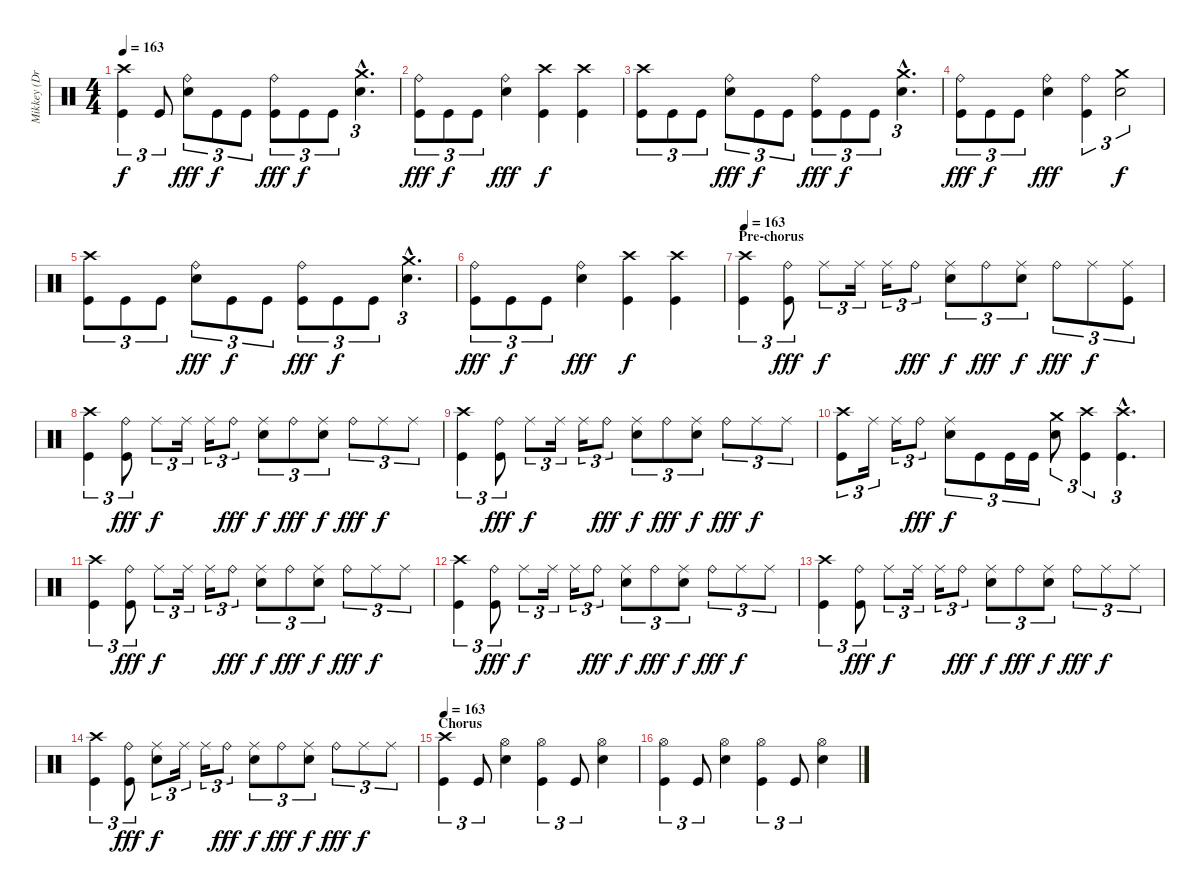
\track ("Mikkey (Drums)" "Mikkey (Dr") {instrument percussion}
\staff {score}
\articulation defaults
\ts (4 4)
\tempo 163
\clef neutral
\ks c
("Crash high (hit)" "Kick (hit)").4{tu (3 2) dy f} "Kick (hit)".8{tu (3 2)} ("Ride (bell)" "Electric Snare (hit)").8{tu (3 2) dy fff} "Kick (hit)".8{tu (3 2) dy f} "Kick (hit)".8{tu (3 2)} ("Ride (bell)" "Kick (hit)").8{tu (3 2) dy fff} "Kick (hit)".8{tu (3 2) dy f} "Kick (hit)".8{tu (3 2)} ("Crash medium (hit)"{hac} "Electric Snare (hit)"{hac}).4{d tu (3 2)} |
("Ride (bell)" "Kick (hit)").8{tu (3 2) dy fff} "Kick (hit)".8{tu (3 2) dy f} "Kick (hit)".8{tu (3 2)} ("Ride (bell)" "Electric Snare (hit)").4{dy fff} ("Crash high (hit)" "Kick (hit)").4{dy f} ("Crash high (hit)" "Kick (hit)").4 |
("Crash high (hit)" "Kick (hit)").8{tu (3 2)} "Kick (hit)".8{tu (3 2)} "Kick (hit)".8{tu (3 2)} ("Ride (bell)" "Electric Snare (hit)").8{tu (3 2) dy fff} "Kick (hit)".8{tu (3 2) dy f} "Kick (hit)".8{tu (3 2)} ("Ride (bell)" "Kick (hit)").8{tu (3 2) dy fff} "Kick (hit)".8{tu (3 2) dy f} "Kick (hit)".8{tu (3 2)} ("Crash medium (hit)"{hac} "Electric Snare (hit)"{hac}).4{d tu (3 2)} |
("Ride (bell)" "Kick (hit)").8{tu (3 2) dy fff} "Kick (hit)".8{tu (3 2) dy f} "Kick (hit)".8{tu (3 2)} ("Ride (bell)" "Electric Snare (hit)").4{dy fff} ("Ride (bell)" "Kick (hit)").4{tu (3 2)} ("Crash medium (hit)" "Electric Snare (hit)").2{tu (3 2) dy f} |
("Crash high (hit)" "Kick (hit)").8{tu (3 2)} "Kick (hit)".8{tu (3 2)} "Kick (hit)".8{tu (3 2)} ("Ride (bell)" "Electric Snare (hit)").8{tu (3 2) dy fff} "Kick (hit)".8{tu (3 2) dy f} "Kick (hit)".8{tu (3 2)} ("Ride (bell)" "Kick (hit)").8{tu (3 2) dy fff} "Kick (hit)".8{tu (3 2) dy f} "Kick (hit)".8{tu (3 2)} ("Crash medium (hit)"{hac} "Electric Snare (hit)"{hac}).4{d tu (3 2)} |
("Ride (bell)" "Kick (hit)").8{tu (3 2) dy fff} "Kick (hit)".8{tu (3 2) dy f} "Kick (hit)".8{tu (3 2)} ("Ride (bell)" "Electric Snare (hit)").4{dy fff} ("Crash high (hit)" "Kick (hit)").4{dy f} ("Crash high (hit)" "Kick (hit)").4 |
\section ("" "Pre-chorus")
\tempo 163
("Crash high (hit)" "Kick (hit)").4{tu (3 2)} ("Ride (bell)" "Kick (hit)").8{tu (3 2) dy fff} "Ride (middle)".8{tu (3 2) dy f} "Ride (middle)".16{tu (3 2)} "Ride (middle)".16{tu (3 2)} "Ride (bell)".8{tu (3 2) dy fff} ("Ride (middle)" "Electric Snare (hit)").8{tu (3 2) dy f} "Ride (bell)".8{tu (3 2) dy fff} ("Ride (middle)" "Electric Snare (hit)").8{tu (3 2) dy f} "Ride (bell)".8{tu (3 2) dy fff} "Ride (middle)".8{tu (3 2) dy f} ("Ride (middle)" "Kick (hit)").8{tu (3 2)} |
("Crash high (hit)" "Kick (hit)").4{tu (3 2)} ("Ride (bell)" "Kick (hit)").8{tu (3 2) dy fff} "Ride (middle)".8{tu (3 2) dy f} "Ride (middle)".16{tu (3 2)} "Ride (middle)".16{tu (3 2)} "Ride (bell)".8{tu (3 2) dy fff} ("Ride (middle)" "Electric Snare (hit)").8{tu (3 2) dy f} "Ride (bell)".8{tu (3 2) dy fff} ("Ride (middle)" "Electric Snare (hit)").8{tu (3 2) dy f} "Ride (bell)".8{tu (3 2) dy fff} "Ride (middle)".8{tu (3 2) dy f} "Ride (middle)".8{tu (3 2)} |
("Crash high (hit)" "Kick (hit)").4{tu (3 2)} ("Ride (bell)" "Kick (hit)").8{tu (3 2) dy fff} "Ride (middle)".8{tu (3 2) dy f} "Ride (middle)".16{tu (3 2)} "Ride (middle)".16{tu (3 2)} "Ride (bell)".8{tu (3 2) dy fff} ("Ride (middle)" "Electric Snare (hit)").8{tu (3 2) dy f} "Ride (bell)".8{tu (3 2) dy fff} ("Ride (middle)" "Electric Snare (hit)").8{tu (3 2) dy f} "Ride (bell)".8{tu (3 2) dy fff} "Ride (middle)".8{tu (3 2) dy f} "Ride (middle)".8{tu (3 2)} |
("Crash high (hit)" "Kick (hit)").8{tu (3 2)} "Ride (middle)".16{tu (3 2)} "Ride (middle)".16{tu (3 2)} "Ride (bell)".8{tu (3 2) dy fff} ("Ride (middle)" "Electric Snare (hit)").8{tu (3 2) dy f} "Kick (hit)".8{tu (3 2)} "Kick (hit)".16{tu (3 2)} "Kick (hit)".16{tu (3 2)} ("Crash medium (hit)" "Electric Snare (hit)").8{tu (3 2)} ("Crash high (hit)" "Kick (hit)").4{tu (3 2)} ("Crash high (hit)"{hac} "Kick (hit)"{hac}).4{d tu (3 2)} |
("Crash high (hit)" "Kick (hit)").4{tu (3 2)} ("Ride (bell)" "Kick (hit)").8{tu (3 2) dy fff} "Ride (middle)".8{tu (3 2) dy f} "Ride (middle)".16{tu (3 2)} "Ride (middle)".16{tu (3 2)} "Ride (bell)".8{tu (3 2) dy fff} ("Ride (middle)" "Electric Snare (hit)").8{tu (3 2) dy f} "Ride (bell)".8{tu (3 2) dy fff} ("Ride (middle)" "Electric Snare (hit)").8{tu (3 2) dy f} "Ride (bell)".8{tu (3 2) dy fff} "Ride (middle)".8{tu (3 2) dy f} "Ride (middle)".8{tu (3 2)} |
("Crash high (hit)" "Kick (hit)").4{tu (3 2)} ("Ride (bell)" "Kick (hit)").8{tu (3 2) dy fff} "Ride (middle)".8{tu (3 2) dy f} "Ride (middle)".16{tu (3 2)} "Ride (middle)".16{tu (3 2)} "Ride (bell)".8{tu (3 2) dy fff} ("Ride (middle)" "Electric Snare (hit)").8{tu (3 2) dy f} "Ride (bell)".8{tu (3 2) dy fff} ("Ride (middle)" "Electric Snare (hit)").8{tu (3 2) dy f} "Ride (bell)".8{tu (3 2) dy fff} "Ride (middle)".8{tu (3 2) dy f} "Ride (middle)".8{tu (3 2)} |
("Crash high (hit)" "Kick (hit)").4{tu (3 2)} ("Ride (bell)" "Kick (hit)").8{tu (3 2) dy fff} "Ride (middle)".8{tu (3 2) dy f} "Ride (middle)".16{tu (3 2)} "Ride (middle)".16{tu (3 2)} "Ride (bell)".8{tu (3 2) dy fff} ("Ride (middle)" "Electric Snare (hit)").8{tu (3 2) dy f} "Ride (bell)".8{tu (3 2) dy fff} ("Ride (middle)" "Electric Snare (hit)").8{tu (3 2) dy f} "Ride (bell)".8{tu (3 2) dy fff} "Ride (middle)".8{tu (3 2) dy f} "Ride (middle)".8{tu (3 2)} |
("Crash high (hit)" "Kick (hit)").4{tu (3 2)} ("Ride (bell)" "Kick (hit)").8{tu (3 2) dy fff} ("Ride (middle)" "Electric Snare (hit)").8{tu (3 2) dy f} "Ride (middle)".16{tu (3 2)} "Ride (middle)".16{tu (3 2)} "Ride (bell)".8{tu (3 2) dy fff} ("Ride (middle)" "Electric Snare (hit)").8{tu (3 2) dy f} "Ride (bell)".8{tu (3 2) dy fff} ("Ride (middle)" "Electric Snare (hit)").8{tu (3 2) dy f} "Ride (bell)".8{tu (3 2) dy fff} "Ride (middle)".8{tu (3 2) dy f} "Ride (middle)".8{tu (3 2)} |
\section ("" "Chorus")
\tempo 163
("Crash high (hit)" "Kick (hit)").4{tu (3 2)} "Kick (hit)".8{tu (3 2)} ("Hi-Hat (open)" "Electric Snare (hit)").4 ("Hi-Hat (open)" "Kick (hit)").4{tu (3 2)} "Kick (hit)".8{tu (3 2)} ("Hi-Hat (open)" "Electric Snare (hit)").4 |
("Hi-Hat (open)" "Kick (hit)").4{tu (3 2)} "Kick (hit)".8{tu (3 2)} ("Hi-Hat (open)" "Electric Snare (hit)").4 ("Hi-Hat (open)" "Kick (hit)").4{tu (3 2)} "Kick (hit)".8{tu (3 2)} ("Hi-Hat (open)" "Electric Snare (hit)").4
